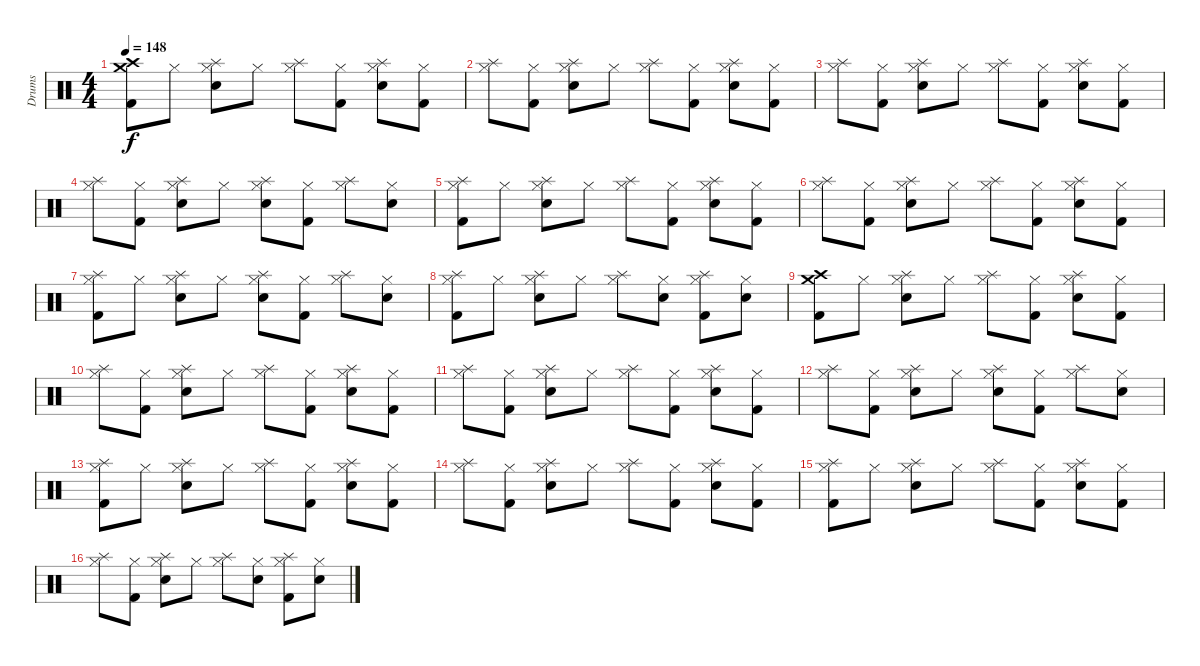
\track ("Drums" "Drums") {instrument percussion}
\staff {score}
\articulation defaults
\ts (4 4)
\tempo 148
\clef neutral
\ks c
("Crash high (hit)" "Crash medium (hit)" "Kick (hit) 2").8{dy f} "Hi-Hat (closed)".8 ("Hi-Hat (closed)" "Snare (hit) 2" "Splash (hit)").8 "Hi-Hat (closed)".8 ("Hi-Hat (closed)" "Splash (hit)").8 ("Hi-Hat (closed)" "Kick (hit) 2").8 ("Hi-Hat (closed)" "Snare (hit) 2" "Splash (hit)").8 ("Hi-Hat (closed)" "Kick (hit) 2").8 |
("Hi-Hat (closed)" "Splash (hit)").8 ("Hi-Hat (closed)" "Kick (hit) 2").8 ("Hi-Hat (closed)" "Splash (hit)" "Snare (hit) 2").8{volume 13 balance 8} "Hi-Hat (closed)".8 ("Hi-Hat (closed)" "Splash (hit)").8 ("Hi-Hat (closed)" "Kick (hit) 2").8 ("Hi-Hat (closed)" "Snare (hit) 2" "Splash (hit)").8 ("Hi-Hat (closed)" "Kick (hit) 2").8 |
("Hi-Hat (closed)" "Splash (hit)").8 ("Hi-Hat (closed)" "Kick (hit) 2").8 ("Hi-Hat (closed)" "Splash (hit)" "Snare (hit) 2").8 "Hi-Hat (closed)".8 ("Hi-Hat (closed)" "Splash (hit)").8 ("Hi-Hat (closed)" "Kick (hit) 2").8 ("Hi-Hat (closed)" "Snare (hit) 2" "Splash (hit)").8 ("Hi-Hat (closed)" "Kick (hit) 2").8 |
("Hi-Hat (closed)" "Splash (hit)").8 ("Hi-Hat (closed)" "Kick (hit) 2").8 ("Hi-Hat (closed)" "Splash (hit)" "Snare (hit) 2").8 "Hi-Hat (closed)".8 ("Hi-Hat (closed)" "Snare (hit) 2" "Splash (hit)").8 ("Hi-Hat (closed)" "Kick (hit) 2").8 ("Hi-Hat (closed)" "Splash (hit)").8 ("Hi-Hat (closed)" "Snare (hit) 2").8 |
("Hi-Hat (closed)" "Splash (hit)" "Kick (hit) 2").8 "Hi-Hat (closed)".8 ("Hi-Hat (closed)" "Splash (hit)" "Snare (hit) 2").8 "Hi-Hat (closed)".8 ("Hi-Hat (closed)" "Splash (hit)").8 ("Hi-Hat (closed)" "Kick (hit) 2").8 ("Hi-Hat (closed)" "Snare (hit) 2" "Splash (hit)").8 ("Hi-Hat (closed)" "Kick (hit) 2").8 |
("Hi-Hat (closed)" "Splash (hit)").8 ("Hi-Hat (closed)" "Kick (hit) 2").8 ("Hi-Hat (closed)" "Snare (hit) 2" "Splash (hit)").8 "Hi-Hat (closed)".8 ("Hi-Hat (closed)" "Splash (hit)").8 ("Hi-Hat (closed)" "Kick (hit) 2").8 ("Hi-Hat (closed)" "Snare (hit) 2" "Splash (hit)").8 ("Hi-Hat (closed)" "Kick (hit) 2").8 |
("Hi-Hat (closed)" "Kick (hit) 2" "Splash (hit)").8 "Hi-Hat (closed)".8 ("Hi-Hat (closed)" "Snare (hit) 2" "Splash (hit)").8 "Hi-Hat (closed)".8 ("Hi-Hat (closed)" "Snare (hit) 2" "Splash (hit)").8 ("Hi-Hat (closed)" "Kick (hit) 2").8 ("Hi-Hat (closed)" "Splash (hit)").8 ("Hi-Hat (closed)" "Snare (hit) 2").8 |
("Hi-Hat (closed)" "Kick (hit) 2" "Splash (hit)").8 "Hi-Hat (closed)".8 ("Hi-Hat (closed)" "Snare (hit) 2" "Splash (hit)").8 "Hi-Hat (closed)".8 ("Hi-Hat (closed)" "Splash (hit)").8 ("Hi-Hat (closed)" "Snare (hit) 2").8 ("Hi-Hat (closed)" "Kick (hit) 2" "Splash (hit)").8 ("Hi-Hat (closed)" "Snare (hit) 2").8 |
("Crash medium (hit)" "Crash high (hit)" "Kick (hit) 2").8 "Hi-Hat (closed)".8 ("Hi-Hat (closed)" "Snare (hit) 2" "Splash (hit)").8 "Hi-Hat (closed)".8 ("Hi-Hat (closed)" "Splash (hit)").8 ("Hi-Hat (closed)" "Kick (hit) 2").8 ("Hi-Hat (closed)" "Snare (hit) 2" "Splash (hit)").8 ("Hi-Hat (closed)" "Kick (hit) 2").8 |
("Hi-Hat (closed)" "Splash (hit)").8 ("Hi-Hat (closed)" "Kick (hit) 2").8 ("Hi-Hat (closed)" "Splash (hit)" "Snare (hit) 2").8{volume 13 balance 8} "Hi-Hat (closed)".8 ("Hi-Hat (closed)" "Splash (hit)").8 ("Hi-Hat (closed)" "Kick (hit) 2").8 ("Hi-Hat (closed)" "Snare (hit) 2" "Splash (hit)").8 ("Hi-Hat (closed)" "Kick (hit) 2").8 |
("Hi-Hat (closed)" "Splash (hit)").8 ("Hi-Hat (closed)" "Kick (hit) 2").8 ("Hi-Hat (closed)" "Splash (hit)" "Snare (hit) 2").8 "Hi-Hat (closed)".8 ("Hi-Hat (closed)" "Splash (hit)").8 ("Hi-Hat (closed)" "Kick (hit) 2").8 ("Hi-Hat (closed)" "Snare (hit) 2" "Splash (hit)").8 ("Hi-Hat (closed)" "Kick (hit) 2").8 |
("Hi-Hat (closed)" "Splash (hit)").8 ("Hi-Hat (closed)" "Kick (hit) 2").8 ("Hi-Hat (closed)" "Splash (hit)" "Snare (hit) 2").8 "Hi-Hat (closed)".8 ("Hi-Hat (closed)" "Snare (hit) 2" "Splash (hit)").8 ("Hi-Hat (closed)" "Kick (hit) 2").8 ("Hi-Hat (closed)" "Splash (hit)").8 ("Hi-Hat (closed)" "Snare (hit) 2").8 |
("Hi-Hat (closed)" "Splash (hit)" "Kick (hit) 2").8 "Hi-Hat (closed)".8 ("Hi-Hat (closed)" "Splash (hit)" "Snare (hit) 2").8 "Hi-Hat (closed)".8 ("Hi-Hat (closed)" "Splash (hit)").8 ("Hi-Hat (closed)" "Kick (hit) 2").8 ("Hi-Hat (closed)" "Snare (hit) 2" "Splash (hit)").8 ("Hi-Hat (closed)" "Kick (hit) 2").8 |
("Hi-Hat (closed)" "Splash (hit)").8 ("Hi-Hat (closed)" "Kick (hit) 2").8 ("Hi-Hat (closed)" "Snare (hit) 2" "Splash (hit)").8 "Hi-Hat (closed)".8 ("Hi-Hat (closed)" "Splash (hit)").8 ("Hi-Hat (closed)" "Kick (hit) 2").8 ("Hi-Hat (closed)" "Snare (hit) 2" "Splash (hit)").8 ("Hi-Hat (closed)" "Kick (hit) 2").8 |
("Hi-Hat (closed)" "Kick (hit) 2" "Splash (hit)").8 "Hi-Hat (closed)".8 ("Hi-Hat (closed)" "Snare (hit) 2" "Splash (hit)").8 "Hi-Hat (closed)".8 ("Hi-Hat (closed)" "Splash (hit)").8 ("Hi-Hat (closed)" "Kick (hit) 2").8 ("Hi-Hat (closed)" "Snare (hit) 2" "Splash (hit)").8 ("Hi-Hat (closed)" "Kick (hit) 2").8 |
("Hi-Hat (closed)" "Splash (hit)").8 ("Hi-Hat (closed)" "Kick (hit) 2").8 ("Hi-Hat (closed)" "Snare (hit) 2" "Splash (hit)").8 "Hi-Hat (closed)".8 ("Hi-Hat (closed)" "Splash (hit)").8 ("Hi-Hat (closed)" "Snare (hit) 2").8 ("Hi-Hat (closed)" "Kick (hit) 2" "Splash (hit)").8 ("Hi-Hat (closed)" "Snare (hit) 2").8
